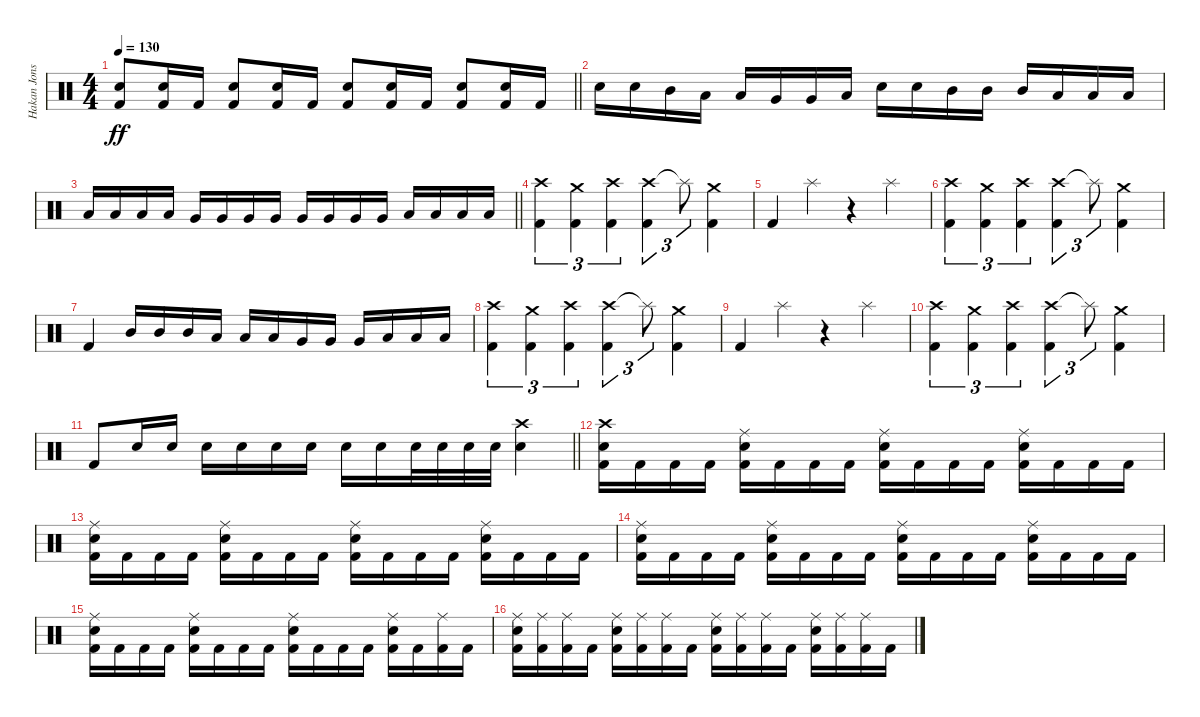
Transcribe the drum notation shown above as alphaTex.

\track ("Hakan Jonsson" "Hakan Jons") {instrument percussion}
\staff {score}
\articulation defaults
\ts (4 4)
\tempo 130
\clef neutral
\barLineRight lightlight
\ks c
("Electric Snare (hit)" "Kick (hit) 2").8{dy ff} ("Electric Snare (hit)" "Kick (hit) 2").16 "Kick (hit) 2".16 ("Electric Snare (hit)" "Kick (hit) 2").8 ("Electric Snare (hit)" "Kick (hit) 2").16 "Kick (hit) 2".16 ("Electric Snare (hit)" "Kick (hit) 2").8 ("Electric Snare (hit)" "Kick (hit) 2").16 "Kick (hit) 2".16 ("Electric Snare (hit)" "Kick (hit) 2").8 ("Electric Snare (hit)" "Kick (hit) 2").16 "Kick (hit) 2".16 |
"Electric Snare (hit)".16 "Electric Snare (hit)".16 "Mid Tom (hit)".16 "Low Tom (hit)".16 "Low Tom (hit)".16 "Very Low Tom (hit)".16 "Very Low Tom (hit)".16 "Low Floor Tom (hit)".16 "Electric Snare (hit)".16 "Electric Snare (hit)".16 "Mid Tom (hit)".16 "Mid Tom (hit)".16 "Mid Tom (hit)".16 "Low Tom (hit)".16 "Low Tom (hit)".16 "Low Tom (hit)".16 |
\barLineRight lightlight "Low Tom (hit)".16 "Low Tom (hit)".16 "Low Tom (hit)".16 "Low Tom (hit)".16 "Very Low Tom (hit)".16 "Very Low Tom (hit)".16 "Very Low Tom (hit)".16 "Very Low Tom (hit)".16 "Very Low Tom (hit)".16 "Very Low Tom (hit)".16 "Very Low Tom (hit)".16 "Very Low Tom (hit)".16 "Low Floor Tom (hit)".16 "Low Floor Tom (hit)".16 "Low Floor Tom (hit)".16 "Low Floor Tom (hit)".16
|
("Crash high (hit)" "Kick (hit) 2").4{tu (3 2)} ("Crash medium (hit)" "Kick (hit) 2").4{tu (3 2)} ("Crash high (hit)" "Kick (hit) 2").4{tu (3 2)} ("Crash high (hit)" "Kick (hit) 2").4{tu (3 2)} "Splash (hit)"{t}.8{tu (3 2)} ("Crash medium (hit)" "Kick (hit) 2").4 |
"Kick (hit) 2".4 "Splash (hit)".4 r.4 "Splash (hit)".4 |
("Crash high (hit)" "Kick (hit) 2").4{tu (3 2)} ("Crash medium (hit)" "Kick (hit) 2").4{tu (3 2)} ("Crash high (hit)" "Kick (hit) 2").4{tu (3 2)} ("Crash high (hit)" "Kick (hit) 2").4{tu (3 2)} "Splash (hit)"{t}.8{tu (3 2)} ("Crash medium (hit)" "Kick (hit) 2").4 |
"Kick (hit) 2".4 "Mid Tom (hit)".16 "Mid Tom (hit)".16 "Mid Tom (hit)".16 "Low Tom (hit)".16 "Low Tom (hit)".16 "Low Tom (hit)".16 "Very Low Tom (hit)".16 "Very Low Tom (hit)".16 "Very Low Tom (hit)".16 "Low Floor Tom (hit)".16 "Low Floor Tom (hit)".16 "Low Floor Tom (hit)".16 |
("Crash high (hit)" "Kick (hit) 2").4{tu (3 2)} ("Crash medium (hit)" "Kick (hit) 2").4{tu (3 2)} ("Crash high (hit)" "Kick (hit) 2").4{tu (3 2)} ("Crash high (hit)" "Kick (hit) 2").4{tu (3 2)} "Splash (hit)"{t}.8{tu (3 2)} ("Crash medium (hit)" "Kick (hit) 2").4 |
"Kick (hit) 2".4 "Splash (hit)".4 r.4 "Splash (hit)".4 |
("Crash high (hit)" "Kick (hit) 2").4{tu (3 2)} ("Crash medium (hit)" "Kick (hit) 2").4{tu (3 2)} ("Crash high (hit)" "Kick (hit) 2").4{tu (3 2)} ("Crash high (hit)" "Kick (hit) 2").4{tu (3 2)} "Splash (hit)"{t}.8{tu (3 2)} ("Crash medium (hit)" "Kick (hit) 2").4 |
\barLineRight lightlight "Kick (hit) 2".8 "Electric Snare (hit)".16 "Electric Snare (hit)".16 "Electric Snare (hit)".16 "Electric Snare (hit)".16 "Electric Snare (hit)".16 "Electric Snare (hit)".16 "Electric Snare (hit)".16 "Electric Snare (hit)".16 "Electric Snare (hit)".32 "Electric Snare (hit)".32 "Electric Snare (hit)".32 "Electric Snare (hit)".32
("Crash high (hit)" "Electric Snare (hit)").4 |
("Crash high (hit)" "Electric Snare (hit)" "Kick (hit) 2").16 "Kick (hit) 2".16 "Kick (hit) 2".16 "Kick (hit) 2".16 ("Ride (middle)" "Electric Snare (hit)" "Kick (hit) 2").16 "Kick (hit) 2".16 "Kick (hit) 2".16 "Kick (hit) 2".16 ("Ride (middle)" "Electric Snare (hit)" "Kick (hit) 2").16 "Kick (hit) 2".16 "Kick (hit) 2".16 "Kick (hit) 2".16 ("Ride (middle)" "Electric Snare (hit)" "Kick (hit) 2").16 "Kick (hit) 2".16 "Kick (hit) 2".16 "Kick (hit) 2".16 |
("Ride (middle)" "Electric Snare (hit)" "Kick (hit) 2").16 "Kick (hit) 2".16 "Kick (hit) 2".16 "Kick (hit) 2".16 ("Ride (middle)" "Electric Snare (hit)" "Kick (hit) 2").16 "Kick (hit) 2".16 "Kick (hit) 2".16 "Kick (hit) 2".16 ("Ride (middle)" "Electric Snare (hit)" "Kick (hit) 2").16 "Kick (hit) 2".16 "Kick (hit) 2".16 "Kick (hit) 2".16 ("Ride (middle)" "Electric Snare (hit)" "Kick (hit) 2").16 "Kick (hit) 2".16 "Kick (hit) 2".16 "Kick (hit) 2".16 |
("Ride (middle)" "Electric Snare (hit)" "Kick (hit) 2").16 "Kick (hit) 2".16 "Kick (hit) 2".16 "Kick (hit) 2".16 ("Ride (middle)" "Electric Snare (hit)" "Kick (hit) 2").16 "Kick (hit) 2".16 "Kick (hit) 2".16 "Kick (hit) 2".16 ("Ride (middle)" "Electric Snare (hit)" "Kick (hit) 2").16 "Kick (hit) 2".16 "Kick (hit) 2".16 "Kick (hit) 2".16 ("Ride (middle)" "Electric Snare (hit)" "Kick (hit) 2").16 "Kick (hit) 2".16 "Kick (hit) 2".16 "Kick (hit) 2".16 |
("Ride (middle)" "Electric Snare (hit)" "Kick (hit) 2").16 "Kick (hit) 2".16 "Kick (hit) 2".16 "Kick (hit) 2".16 ("Ride (middle)" "Electric Snare (hit)" "Kick (hit) 2").16 "Kick (hit) 2".16 "Kick (hit) 2".16 "Kick (hit) 2".16 ("Ride (middle)" "Electric Snare (hit)" "Kick (hit) 2").16 "Kick (hit) 2".16 "Kick (hit) 2".16 "Kick (hit) 2".16 ("Ride (middle)" "Electric Snare (hit)" "Kick (hit) 2").16 "Kick (hit) 2".16 ("Ride (middle)" "Kick (hit) 2").16 "Kick (hit) 2".16 |
("Ride (middle)" "Electric Snare (hit)" "Kick (hit) 2").16 ("Ride (middle)" "Kick (hit) 2").16 ("Ride (middle)" "Kick (hit) 2").16 "Kick (hit) 2".16 ("Ride (middle)" "Electric Snare (hit)" "Kick (hit) 2").16 ("Ride (middle)" "Kick (hit) 2").16 ("Ride (middle)" "Kick (hit) 2").16 "Kick (hit) 2".16 ("Ride (middle)" "Electric Snare (hit)" "Kick (hit) 2").16 ("Ride (middle)" "Kick (hit) 2").16 ("Ride (middle)" "Kick (hit) 2").16 "Kick (hit) 2".16 ("Ride (middle)" "Electric Snare (hit)" "Kick (hit) 2").16 ("Ride (middle)" "Kick (hit) 2").16 ("Ride (middle)" "Kick (hit) 2").16 "Kick (hit) 2".16
